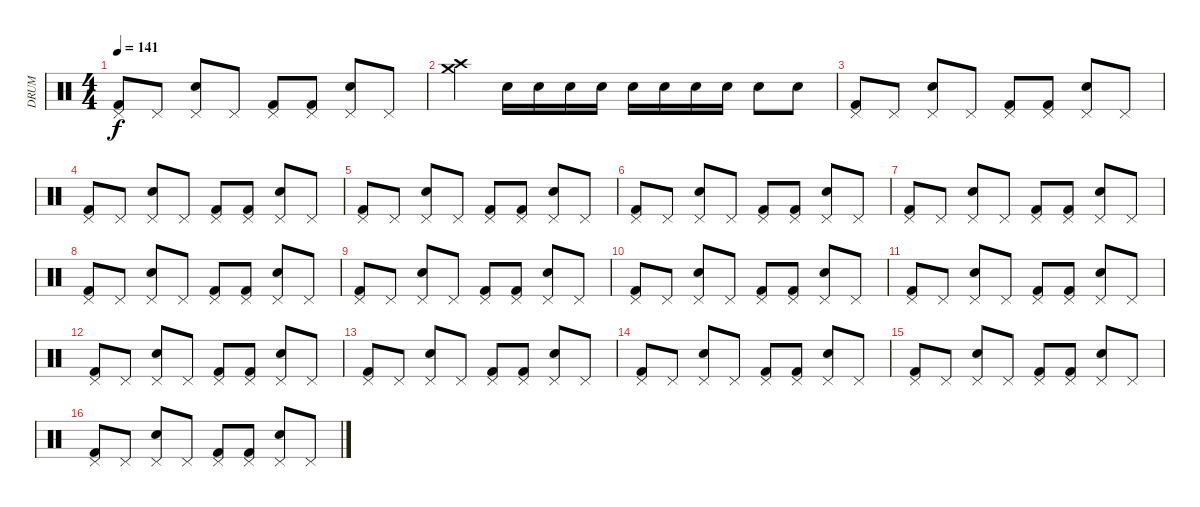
\track ("DRUM" "DRUM") {instrument percussion}
\staff {score}
\articulation defaults
\ts (4 4)
\tempo 141
\clef neutral
\ks c
("Pedal Hi-Hat (hit)" "Kick (hit) 2").8{dy f} "Pedal Hi-Hat (hit)".8 ("Snare (hit) 2" "Pedal Hi-Hat (hit)").8 "Pedal Hi-Hat (hit)".8 ("Pedal Hi-Hat (hit)" "Kick (hit) 2").8 ("Pedal Hi-Hat (hit)" "Kick (hit) 2").8 ("Snare (hit) 2" "Pedal Hi-Hat (hit)").8 "Pedal Hi-Hat (hit)".8 |
("Crash high (hit)" "Crash medium (hit)").4 "Electric Snare (hit)".16 "Electric Snare (hit)".16 "Electric Snare (hit)".16 "Electric Snare (hit)".16 "Electric Snare (hit)".16 "Electric Snare (hit)".16 "Electric Snare (hit)".16 "Electric Snare (hit)".16 "Electric Snare (hit)".8 "Snare (hit) 2".8 |
("Pedal Hi-Hat (hit)" "Kick (hit) 2").8 "Pedal Hi-Hat (hit)".8 ("Snare (hit) 2" "Pedal Hi-Hat (hit)").8 "Pedal Hi-Hat (hit)".8 ("Pedal Hi-Hat (hit)" "Kick (hit) 2").8 ("Pedal Hi-Hat (hit)" "Kick (hit) 2").8 ("Snare (hit) 2" "Pedal Hi-Hat (hit)").8 "Pedal Hi-Hat (hit)".8 |
("Pedal Hi-Hat (hit)" "Kick (hit) 2").8 "Pedal Hi-Hat (hit)".8 ("Snare (hit) 2" "Pedal Hi-Hat (hit)").8 "Pedal Hi-Hat (hit)".8 ("Pedal Hi-Hat (hit)" "Kick (hit) 2").8 ("Pedal Hi-Hat (hit)" "Kick (hit) 2").8 ("Snare (hit) 2" "Pedal Hi-Hat (hit)").8 "Pedal Hi-Hat (hit)".8 |
("Pedal Hi-Hat (hit)" "Kick (hit) 2").8 "Pedal Hi-Hat (hit)".8 ("Snare (hit) 2" "Pedal Hi-Hat (hit)").8 "Pedal Hi-Hat (hit)".8 ("Pedal Hi-Hat (hit)" "Kick (hit) 2").8 ("Pedal Hi-Hat (hit)" "Kick (hit) 2").8 ("Snare (hit) 2" "Pedal Hi-Hat (hit)").8 "Pedal Hi-Hat (hit)".8 |
("Pedal Hi-Hat (hit)" "Kick (hit) 2").8 "Pedal Hi-Hat (hit)".8 ("Snare (hit) 2" "Pedal Hi-Hat (hit)").8 "Pedal Hi-Hat (hit)".8 ("Pedal Hi-Hat (hit)" "Kick (hit) 2").8 ("Pedal Hi-Hat (hit)" "Kick (hit) 2").8 ("Snare (hit) 2" "Pedal Hi-Hat (hit)").8 "Pedal Hi-Hat (hit)".8 |
("Pedal Hi-Hat (hit)" "Kick (hit) 2").8 "Pedal Hi-Hat (hit)".8 ("Snare (hit) 2" "Pedal Hi-Hat (hit)").8 "Pedal Hi-Hat (hit)".8 ("Pedal Hi-Hat (hit)" "Kick (hit) 2").8 ("Pedal Hi-Hat (hit)" "Kick (hit) 2").8 ("Snare (hit) 2" "Pedal Hi-Hat (hit)").8 "Pedal Hi-Hat (hit)".8 |
("Pedal Hi-Hat (hit)" "Kick (hit) 2").8 "Pedal Hi-Hat (hit)".8 ("Snare (hit) 2" "Pedal Hi-Hat (hit)").8 "Pedal Hi-Hat (hit)".8 ("Pedal Hi-Hat (hit)" "Kick (hit) 2").8 ("Pedal Hi-Hat (hit)" "Kick (hit) 2").8 ("Snare (hit) 2" "Pedal Hi-Hat (hit)").8 "Pedal Hi-Hat (hit)".8 |
("Pedal Hi-Hat (hit)" "Kick (hit) 2").8 "Pedal Hi-Hat (hit)".8 ("Snare (hit) 2" "Pedal Hi-Hat (hit)").8 "Pedal Hi-Hat (hit)".8 ("Pedal Hi-Hat (hit)" "Kick (hit) 2").8 ("Pedal Hi-Hat (hit)" "Kick (hit) 2").8 ("Snare (hit) 2" "Pedal Hi-Hat (hit)").8 "Pedal Hi-Hat (hit)".8 |
("Pedal Hi-Hat (hit)" "Kick (hit) 2").8 "Pedal Hi-Hat (hit)".8 ("Snare (hit) 2" "Pedal Hi-Hat (hit)").8 "Pedal Hi-Hat (hit)".8 ("Pedal Hi-Hat (hit)" "Kick (hit) 2").8 ("Pedal Hi-Hat (hit)" "Kick (hit) 2").8 ("Snare (hit) 2" "Pedal Hi-Hat (hit)").8 "Pedal Hi-Hat (hit)".8 |
("Pedal Hi-Hat (hit)" "Kick (hit) 2").8 "Pedal Hi-Hat (hit)".8 ("Snare (hit) 2" "Pedal Hi-Hat (hit)").8 "Pedal Hi-Hat (hit)".8 ("Pedal Hi-Hat (hit)" "Kick (hit) 2").8 ("Pedal Hi-Hat (hit)" "Kick (hit) 2").8 ("Snare (hit) 2" "Pedal Hi-Hat (hit)").8 "Pedal Hi-Hat (hit)".8 |
("Pedal Hi-Hat (hit)" "Kick (hit) 2").8 "Pedal Hi-Hat (hit)".8 ("Snare (hit) 2" "Pedal Hi-Hat (hit)").8 "Pedal Hi-Hat (hit)".8 ("Pedal Hi-Hat (hit)" "Kick (hit) 2").8 ("Pedal Hi-Hat (hit)" "Kick (hit) 2").8 ("Snare (hit) 2" "Pedal Hi-Hat (hit)").8 "Pedal Hi-Hat (hit)".8 |
("Pedal Hi-Hat (hit)" "Kick (hit) 2").8 "Pedal Hi-Hat (hit)".8 ("Snare (hit) 2" "Pedal Hi-Hat (hit)").8 "Pedal Hi-Hat (hit)".8 ("Pedal Hi-Hat (hit)" "Kick (hit) 2").8 ("Pedal Hi-Hat (hit)" "Kick (hit) 2").8 ("Snare (hit) 2" "Pedal Hi-Hat (hit)").8 "Pedal Hi-Hat (hit)".8 |
("Pedal Hi-Hat (hit)" "Kick (hit) 2").8 "Pedal Hi-Hat (hit)".8 ("Snare (hit) 2" "Pedal Hi-Hat (hit)").8 "Pedal Hi-Hat (hit)".8 ("Pedal Hi-Hat (hit)" "Kick (hit) 2").8 ("Pedal Hi-Hat (hit)" "Kick (hit) 2").8 ("Snare (hit) 2" "Pedal Hi-Hat (hit)").8 "Pedal Hi-Hat (hit)".8 |
("Pedal Hi-Hat (hit)" "Kick (hit) 2").8 "Pedal Hi-Hat (hit)".8 ("Snare (hit) 2" "Pedal Hi-Hat (hit)").8 "Pedal Hi-Hat (hit)".8 ("Pedal Hi-Hat (hit)" "Kick (hit) 2").8 ("Pedal Hi-Hat (hit)" "Kick (hit) 2").8 ("Snare (hit) 2" "Pedal Hi-Hat (hit)").8 "Pedal Hi-Hat (hit)".8 |
("Pedal Hi-Hat (hit)" "Kick (hit) 2").8 "Pedal Hi-Hat (hit)".8 ("Snare (hit) 2" "Pedal Hi-Hat (hit)").8 "Pedal Hi-Hat (hit)".8 ("Pedal Hi-Hat (hit)" "Kick (hit) 2").8 ("Pedal Hi-Hat (hit)" "Kick (hit) 2").8 ("Snare (hit) 2" "Pedal Hi-Hat (hit)").8 "Pedal Hi-Hat (hit)".8
